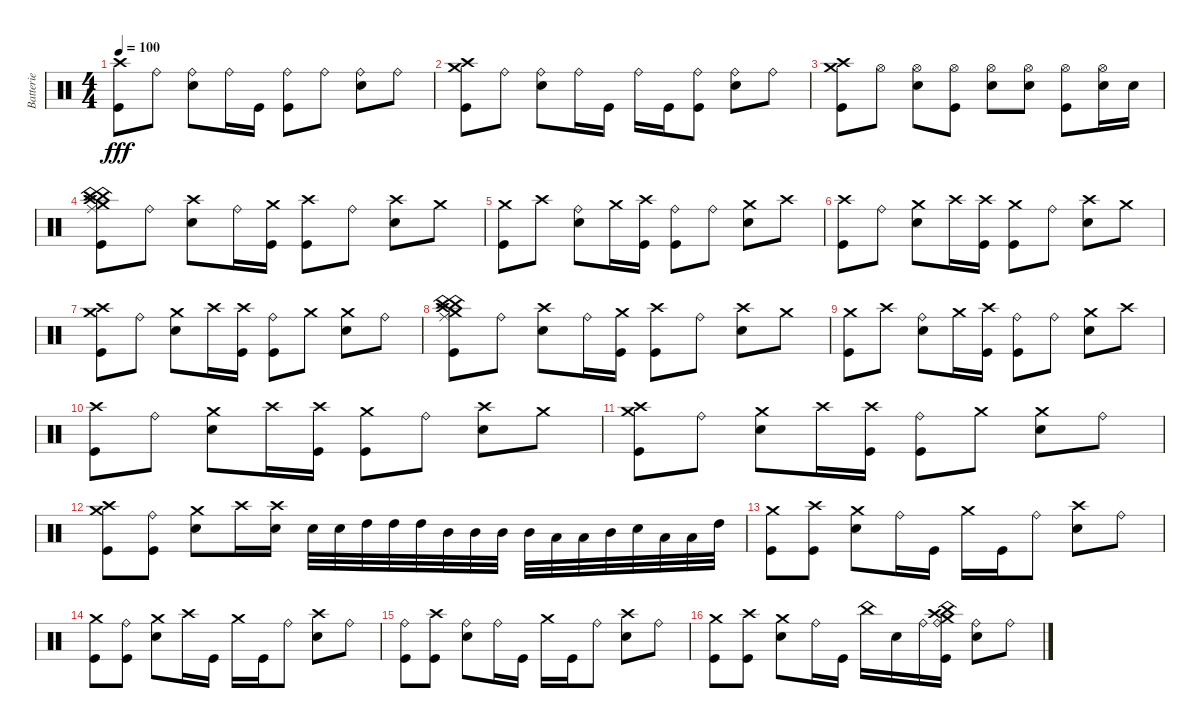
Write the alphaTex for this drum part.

\track ("Batterie" "Batterie") {instrument percussion}
\staff {score}
\articulation defaults
\ts (4 4)
\tempo 100
\clef neutral
\ks c
("Crash high (hit)" "Kick (hit)").8{dy fff} "Ride (bell)".8 ("Ride (bell)" "Electric Snare (hit)").8 "Ride (bell)".16 "Kick (hit)".16 ("Ride (bell)" "Kick (hit)").8 "Ride (bell)".8 ("Ride (bell)" "Electric Snare (hit)").8 "Ride (bell)".8 |
("Crash high (hit)" "Kick (hit)" "Crash medium (hit)").8 "Ride (bell)".8 ("Ride (bell)" "Electric Snare (hit)").8 "Ride (bell)".16 "Kick (hit)".16 "Ride (bell)".16 "Kick (hit)".16 ("Ride (bell)" "Kick (hit)").8 ("Ride (bell)" "Electric Snare (hit)").8 "Ride (bell)".8 |
("Crash high (hit)" "Kick (hit)" "Crash medium (hit)").8 "Hi-Hat (open)".8 ("Hi-Hat (open)" "Electric Snare (hit)").8 ("Hi-Hat (open)" "Kick (hit)").8 ("Hi-Hat (open)" "Electric Snare (hit)").8 ("Hi-Hat (open)" "Electric Snare (hit)").8 ("Hi-Hat (open)" "Kick (hit)").8 ("Hi-Hat (open)" "Electric Snare (hit)").16 "Electric Snare (hit)".16 |
("Crash high (hit)" "Kick (hit)" "Crash medium (hit)" "China (hit)" "China (hit)" "Ride (middle)").8 "Ride (bell)".8 ("Crash high (hit)" "Electric Snare (hit)").8 "Ride (bell)".16 ("Crash medium (hit)" "Kick (hit)").16 ("Crash high (hit)" "Kick (hit)").8 "Ride (bell)".8 ("Crash high (hit)" "Electric Snare (hit)").8 "Crash medium (hit)".8 |
("Crash medium (hit)" "Kick (hit)").8 "Crash high (hit)".8 ("Ride (bell)" "Electric Snare (hit)").8 "Crash medium (hit)".16 ("Crash high (hit)" "Kick (hit)").16 ("Ride (bell)" "Kick (hit)").8 "Ride (bell)".8 ("Crash medium (hit)" "Electric Snare (hit)").8 "Crash high (hit)".8 |
("Crash high (hit)" "Kick (hit)").8 "Ride (bell)".8 ("Crash medium (hit)" "Electric Snare (hit)").8 "Crash high (hit)".16 ("Crash high (hit)" "Kick (hit)").16 ("Crash medium (hit)" "Kick (hit)").8 "Ride (bell)".8 ("Crash high (hit)" "Electric Snare (hit)").8 "Crash medium (hit)".8 |
("Crash high (hit)" "Kick (hit)" "Crash medium (hit)").8 "Ride (bell)".8 ("Crash medium (hit)" "Electric Snare (hit)").8 "Crash high (hit)".16 ("Crash high (hit)" "Kick (hit)").16 ("Ride (bell)" "Kick (hit)").8 "Crash medium (hit)".8 ("Crash medium (hit)" "Electric Snare (hit)").8 "Ride (bell)".8 |
("Crash high (hit)" "Kick (hit)" "Crash medium (hit)" "China (hit)" "China (hit)" "Ride (middle)").8 "Ride (bell)".8 ("Crash high (hit)" "Electric Snare (hit)").8 "Ride (bell)".16 ("Crash medium (hit)" "Kick (hit)").16 ("Crash high (hit)" "Kick (hit)").8 "Ride (bell)".8 ("Crash high (hit)" "Electric Snare (hit)").8 "Crash medium (hit)".8 |
("Crash medium (hit)" "Kick (hit)").8 "Crash high (hit)".8 ("Ride (bell)" "Electric Snare (hit)").8 "Crash medium (hit)".16 ("Crash high (hit)" "Kick (hit)").16 ("Ride (bell)" "Kick (hit)").8 "Ride (bell)".8 ("Crash medium (hit)" "Electric Snare (hit)").8 "Crash high (hit)".8 |
("Crash high (hit)" "Kick (hit)").8 "Ride (bell)".8 ("Crash medium (hit)" "Electric Snare (hit)").8 "Crash high (hit)".16 ("Crash high (hit)" "Kick (hit)").16 ("Crash medium (hit)" "Kick (hit)").8 "Ride (bell)".8 ("Crash high (hit)" "Electric Snare (hit)").8 "Crash medium (hit)".8 |
("Crash high (hit)" "Kick (hit)" "Crash medium (hit)").8 "Ride (bell)".8 ("Crash medium (hit)" "Electric Snare (hit)").8 "Crash high (hit)".16 ("Crash high (hit)" "Kick (hit)").16 ("Ride (bell)" "Kick (hit)").8 "Crash medium (hit)".8 ("Crash medium (hit)" "Electric Snare (hit)").8 "Ride (bell)".8 |
("Crash high (hit)" "Kick (hit)" "Crash medium (hit)").8 ("Ride (bell)" "Kick (hit)").8 ("Crash medium (hit)" "Electric Snare (hit)").8 "Crash high (hit)".16 ("Crash high (hit)" "Electric Snare (hit)").16 "Electric Snare (hit)".32 "Electric Snare (hit)".32 "High Tom (hit)".32 "High Tom (hit)".32 "High Tom (hit)".32 "Mid Tom (hit)".32 "Mid Tom (hit)".32 "Mid Tom (hit)".32 "Mid Tom (hit)".32 "Low Floor Tom (hit)".32 "Low Floor Tom (hit)".32 "Mid Tom (hit)".32 "Electric Snare (hit)".32 "Low Floor Tom (hit)".32 "Low Floor Tom (hit)".32 "High Tom (hit)".32 |
("Crash medium (hit)" "Kick (hit)").8 ("Crash high (hit)" "Kick (hit)").8 ("Crash medium (hit)" "Electric Snare (hit)").8 "Ride (bell)".16 "Kick (hit)".16 "Crash medium (hit)".16 "Kick (hit)".16 "Ride (bell)".8 ("Crash high (hit)" "Electric Snare (hit)").8 "Ride (bell)".8 |
("Crash medium (hit)" "Kick (hit)").8 ("Ride (bell)" "Kick (hit)").8 ("Crash medium (hit)" "Electric Snare (hit)").8 "Crash high (hit)".16 "Kick (hit)".16 "Crash medium (hit)".16 "Kick (hit)".16 "Ride (bell)".8 ("Crash high (hit)" "Electric Snare (hit)").8 "Ride (bell)".8 |
("Ride (bell)" "Kick (hit)").8 ("Crash high (hit)" "Kick (hit)").8 ("Ride (bell)" "Electric Snare (hit)").8 "Ride (bell)".16 "Kick (hit)".16 "Crash medium (hit)".16 "Kick (hit)".16 "Ride (bell)".8 ("Crash high (hit)" "Electric Snare (hit)").8 "Ride (bell)".8 |
("Crash medium (hit)" "Kick (hit)").8 ("Crash high (hit)" "Kick (hit)").8 ("Crash medium (hit)" "Electric Snare (hit)").8 "Ride (bell)".16 "Kick (hit)".16 "China (hit)".16 "Electric Snare (hit)".16 "Ride (bell)".16 ("China (hit)" "Kick (hit)" "Crash high (hit)" "Crash medium (hit)" "Ride (bell)").16 ("Ride (bell)" "Electric Snare (hit)").8 "Ride (bell)".8
